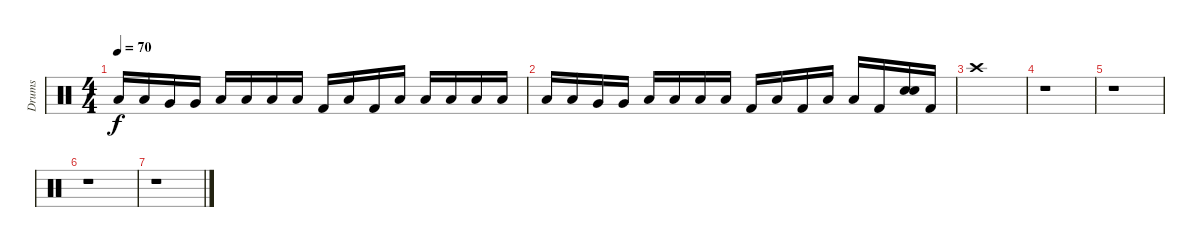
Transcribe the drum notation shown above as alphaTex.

\track ("Drums" "Drums") {instrument percussion}
\staff {score}
\articulation defaults
\ts (4 4)
\tempo 70
\clef neutral
\ks c "Low Tom (hit)".16{dy f} "Low Tom (hit)".16 "Very Low Tom (hit)".16 "Very Low Tom (hit)".16 "Low Floor Tom (hit)".16 "Low Floor Tom (hit)".16 "Low Floor Tom (hit)".16 "Low Floor Tom (hit)".16 "Kick (hit) 2".16 "Low Floor Tom (hit)".16 "Kick (hit) 2".16 "Low Floor Tom (hit)".16 "Low Floor Tom (hit)".16 "Low Floor Tom (hit)".16 "Low Floor Tom (hit)".16 "Low Floor Tom (hit)".16
|
"Low Tom (hit)".16 "Low Tom (hit)".16 "Very Low Tom (hit)".16 "Very Low Tom (hit)".16 "Low Floor Tom (hit)".16 "Low Floor Tom (hit)".16 "Low Floor Tom (hit)".16 "Low Floor Tom (hit)".16 "Kick (hit) 2".16 "Low Floor Tom (hit)".16 "Kick (hit) 2".16 "Low Floor Tom (hit)".16 "Low Floor Tom (hit)".16 "Kick (hit) 2".16 ("Snare (hit) 2" "Electric Snare (hit)").16 "Kick (hit) 2".16 |
"Crash high (hit)".1 |
r.1 |
r.1 |
r.1 |
r.1
